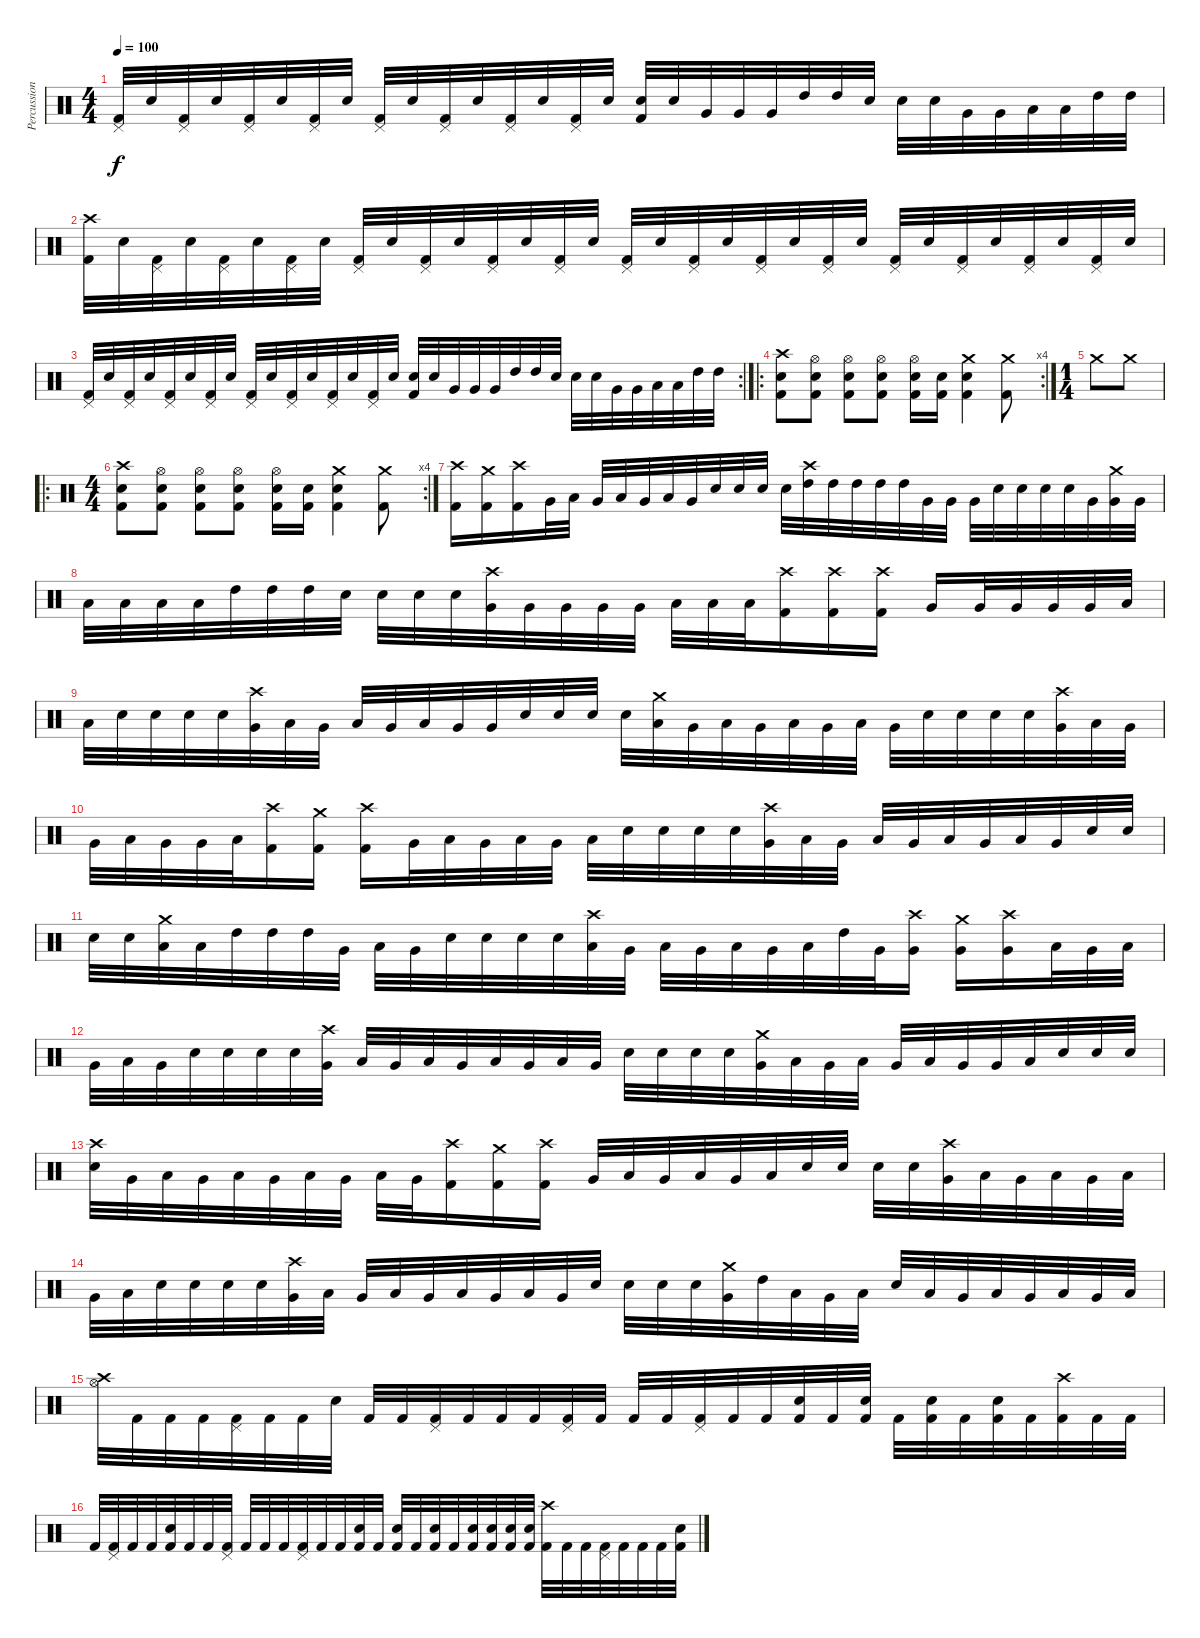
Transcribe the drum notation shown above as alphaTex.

\track ("Percussion" "Percussion") {instrument percussion}
\staff {score}
\articulation defaults
\ts (4 4)
\tempo 100
\clef neutral
\ks c
("Pedal Hi-Hat (hit)" "Kick (hit) 2").32{dy f} "Electric Snare (hit)".32 ("Pedal Hi-Hat (hit)" "Kick (hit) 2").32 "Electric Snare (hit)".32 ("Pedal Hi-Hat (hit)" "Kick (hit) 2").32 "Electric Snare (hit)".32 ("Pedal Hi-Hat (hit)" "Kick (hit) 2").32 "Electric Snare (hit)".32 ("Pedal Hi-Hat (hit)" "Kick (hit) 2").32 "Electric Snare (hit)".32 ("Pedal Hi-Hat (hit)" "Kick (hit) 2").32 "Electric Snare (hit)".32 ("Pedal Hi-Hat (hit)" "Kick (hit) 2").32 "Electric Snare (hit)".32 ("Pedal Hi-Hat (hit)" "Kick (hit) 2").32 "Electric Snare (hit)".32 ("Electric Snare (hit)" "Kick (hit) 2").32 "Electric Snare (hit)".32 "Very Low Tom (hit)".32 "Very Low Tom (hit)".32 "Very Low Tom (hit)".32 "High Tom (hit)".32 "High Tom (hit)".32 "Electric Snare (hit)".32 "Electric Snare (hit)".32 "Electric Snare (hit)".32 "Very Low Tom (hit)".32 "Very Low Tom (hit)".32 "Low Tom (hit)".32 "Low Tom (hit)".32 "High Tom (hit)".32 "High Tom (hit)".32 |
("Crash high (hit)" "Kick (hit) 2").32 "Electric Snare (hit)".32 ("Pedal Hi-Hat (hit)" "Kick (hit) 2").32 "Electric Snare (hit)".32 ("Pedal Hi-Hat (hit)" "Kick (hit) 2").32 "Electric Snare (hit)".32 ("Pedal Hi-Hat (hit)" "Kick (hit) 2").32 "Electric Snare (hit)".32 ("Pedal Hi-Hat (hit)" "Kick (hit) 2").32 "Electric Snare (hit)".32 ("Pedal Hi-Hat (hit)" "Kick (hit) 2").32 "Electric Snare (hit)".32 ("Pedal Hi-Hat (hit)" "Kick (hit) 2").32 "Electric Snare (hit)".32 ("Pedal Hi-Hat (hit)" "Kick (hit) 2").32 "Electric Snare (hit)".32 ("Pedal Hi-Hat (hit)" "Kick (hit) 2").32 "Electric Snare (hit)".32 ("Pedal Hi-Hat (hit)" "Kick (hit) 2").32 "Electric Snare (hit)".32 ("Pedal Hi-Hat (hit)" "Kick (hit) 2").32 "Electric Snare (hit)".32 ("Pedal Hi-Hat (hit)" "Kick (hit) 2").32 "Electric Snare (hit)".32 ("Pedal Hi-Hat (hit)" "Kick (hit) 2").32 "Electric Snare (hit)".32 ("Pedal Hi-Hat (hit)" "Kick (hit) 2").32 "Electric Snare (hit)".32 ("Pedal Hi-Hat (hit)" "Kick (hit) 2").32 "Electric Snare (hit)".32 ("Pedal Hi-Hat (hit)" "Kick (hit) 2").32 "Electric Snare (hit)".32 |
\rc 2
("Pedal Hi-Hat (hit)" "Kick (hit) 2").32 "Electric Snare (hit)".32 ("Pedal Hi-Hat (hit)" "Kick (hit) 2").32 "Electric Snare (hit)".32 ("Pedal Hi-Hat (hit)" "Kick (hit) 2").32 "Electric Snare (hit)".32 ("Pedal Hi-Hat (hit)" "Kick (hit) 2").32 "Electric Snare (hit)".32 ("Pedal Hi-Hat (hit)" "Kick (hit) 2").32 "Electric Snare (hit)".32 ("Pedal Hi-Hat (hit)" "Kick (hit) 2").32 "Electric Snare (hit)".32 ("Pedal Hi-Hat (hit)" "Kick (hit) 2").32 "Electric Snare (hit)".32 ("Pedal Hi-Hat (hit)" "Kick (hit) 2").32 "Electric Snare (hit)".32 ("Electric Snare (hit)" "Kick (hit) 2").32 "Electric Snare (hit)".32 "Very Low Tom (hit)".32 "Very Low Tom (hit)".32 "Very Low Tom (hit)".32 "High Tom (hit)".32 "High Tom (hit)".32 "Electric Snare (hit)".32 "Electric Snare (hit)".32 "Electric Snare (hit)".32 "Very Low Tom (hit)".32 "Very Low Tom (hit)".32 "Low Tom (hit)".32 "Low Tom (hit)".32 "High Tom (hit)".32 "High Tom (hit)".32 |
\ro
\rc 4
("Crash high (hit)" "Electric Snare (hit)" "Kick (hit) 2").8 ("Hi-Hat (open)" "Electric Snare (hit)" "Kick (hit) 2").8 ("Hi-Hat (open)" "Electric Snare (hit)" "Kick (hit) 2").8 ("Hi-Hat (open)" "Electric Snare (hit)" "Kick (hit) 2").8 ("Hi-Hat (open)" "Electric Snare (hit)" "Kick (hit) 2").16 ("Electric Snare (hit)" "Kick (hit) 2").16 ("Crash medium (hit)" "Electric Snare (hit)" "Kick (hit) 2").4 ("Crash medium (hit)" "Kick (hit) 2").8 |
\ts (1 4)
"Crash medium (hit)".8 "Crash medium (hit)".8 |
\ro
\rc 4
\ts (4 4)
("Crash high (hit)" "Electric Snare (hit)" "Kick (hit) 2").8 ("Hi-Hat (open)" "Electric Snare (hit)" "Kick (hit) 2").8 ("Hi-Hat (open)" "Electric Snare (hit)" "Kick (hit) 2").8 ("Hi-Hat (open)" "Electric Snare (hit)" "Kick (hit) 2").8 ("Hi-Hat (open)" "Electric Snare (hit)" "Kick (hit) 2").16 ("Electric Snare (hit)" "Kick (hit) 2").16 ("Crash medium (hit)" "Electric Snare (hit)" "Kick (hit) 2").4 ("Crash medium (hit)" "Kick (hit) 2").8 |
("Crash high (hit)" "Kick (hit) 2").16 ("Crash medium (hit)" "Kick (hit) 2").16 ("Crash high (hit)" "Kick (hit) 2").16 "Very Low Tom (hit)".32 "Low Tom (hit)".32 "Very Low Tom (hit)".32 "Low Tom (hit)".32 "Very Low Tom (hit)".32 "Low Tom (hit)".32 "Very Low Tom (hit)".32 "Electric Snare (hit)".32 "Electric Snare (hit)".32 "Electric Snare (hit)".32 "Electric Snare (hit)".32 ("Crash high (hit)" "High Tom (hit)").32 "High Tom (hit)".32 "High Tom (hit)".32 "High Tom (hit)".32 "High Tom (hit)".32 "Very Low Tom (hit)".32 "Very Low Tom (hit)".32 "Very Low Tom (hit)".32 "Electric Snare (hit)".32 "Electric Snare (hit)".32 "Electric Snare (hit)".32 "Electric Snare (hit)".32 "Very Low Tom (hit)".32 ("Crash medium (hit)" "Very Low Tom (hit)").32 "Very Low Tom (hit)".32 |
"Low Tom (hit)".32 "Low Tom (hit)".32 "Low Tom (hit)".32 "Low Tom (hit)".32 "High Tom (hit)".32 "High Tom (hit)".32 "High Tom (hit)".32 "Electric Snare (hit)".32 "Electric Snare (hit)".32 "Electric Snare (hit)".32 "Electric Snare (hit)".32 ("Crash high (hit)" "Very Low Tom (hit)").32 "Very Low Tom (hit)".32 "Very Low Tom (hit)".32 "Very Low Tom (hit)".32 "Very Low Tom (hit)".32 "Low Tom (hit)".32 "Low Tom (hit)".32 "Low Tom (hit)".32 ("Crash high (hit)" "Kick (hit) 2").16 ("Crash high (hit)" "Kick (hit) 2").16 ("Crash high (hit)" "Kick (hit) 2").16 "Very Low Tom (hit)".16 "Very Low Tom (hit)".32 "Very Low Tom (hit)".32 "Very Low Tom (hit)".32 "Very Low Tom (hit)".32 "Low Tom (hit)".32 |
"Low Tom (hit)".32 "Electric Snare (hit)".32 "Electric Snare (hit)".32 "Electric Snare (hit)".32 "Electric Snare (hit)".32 ("Crash high (hit)" "Very Low Tom (hit)").32 "Low Tom (hit)".32 "Very Low Tom (hit)".32 "Low Tom (hit)".32 "Very Low Tom (hit)".32 "Low Tom (hit)".32 "Very Low Tom (hit)".32 "Very Low Tom (hit)".32 "Electric Snare (hit)".32 "Electric Snare (hit)".32 "Electric Snare (hit)".32 "Electric Snare (hit)".32 ("Crash medium (hit)" "Low Tom (hit)").32 "Very Low Tom (hit)".32 "Low Tom (hit)".32 "Very Low Tom (hit)".32 "Low Tom (hit)".32 "Very Low Tom (hit)".32 "Low Tom (hit)".32 "Very Low Tom (hit)".32 "Electric Snare (hit)".32 "Electric Snare (hit)".32 "Electric Snare (hit)".32 "Electric Snare (hit)".32 ("Crash high (hit)" "Very Low Tom (hit)").32 "Low Tom (hit)".32 "Very Low Tom (hit)".32 |
"Very Low Tom (hit)".32 "Low Tom (hit)".32 "Very Low Tom (hit)".32 "Very Low Tom (hit)".32 "Low Tom (hit)".32 ("Crash high (hit)" "Kick (hit) 2").16 ("Crash medium (hit)" "Kick (hit) 2").16 ("Crash high (hit)" "Kick (hit) 2").16 "Very Low Tom (hit)".32 "Low Tom (hit)".32 "Very Low Tom (hit)".32 "Low Tom (hit)".32 "Very Low Tom (hit)".32 "Low Tom (hit)".32 "Electric Snare (hit)".32 "Electric Snare (hit)".32 "Electric Snare (hit)".32 "Electric Snare (hit)".32 ("Crash high (hit)" "Very Low Tom (hit)").32 "Low Tom (hit)".32 "Very Low Tom (hit)".32 "Low Tom (hit)".32 "Very Low Tom (hit)".32 "Low Tom (hit)".32 "Very Low Tom (hit)".32 "Low Tom (hit)".32 "Very Low Tom (hit)".32 "Electric Snare (hit)".32 "Electric Snare (hit)".32 |
"Electric Snare (hit)".32 "Electric Snare (hit)".32 ("Crash medium (hit)" "Low Tom (hit)").32 "Low Tom (hit)".32 "High Tom (hit)".32 "High Tom (hit)".32 "High Tom (hit)".32 "Very Low Tom (hit)".32 "Low Tom (hit)".32 "Very Low Tom (hit)".32 "Electric Snare (hit)".32 "Electric Snare (hit)".32 "Electric Snare (hit)".32 "Electric Snare (hit)".32 ("Crash high (hit)" "Low Tom (hit)").32 "Very Low Tom (hit)".32 "Low Tom (hit)".32 "Very Low Tom (hit)".32 "Low Tom (hit)".32 "Very Low Tom (hit)".32 "Low Tom (hit)".32 "High Tom (hit)".32 "Very Low Tom (hit)".32 ("Crash high (hit)" "Very Low Tom (hit)").16 ("Crash medium (hit)" "Very Low Tom (hit)").16 ("Crash high (hit)" "Very Low Tom (hit)").16 "Low Tom (hit)".32 "Very Low Tom (hit)".32 "Low Tom (hit)".32 |
"Very Low Tom (hit)".32 "Low Tom (hit)".32 "Very Low Tom (hit)".32 "Electric Snare (hit)".32 "Electric Snare (hit)".32 "Electric Snare (hit)".32 "Electric Snare (hit)".32 ("Crash high (hit)" "Very Low Tom (hit)").32 "Low Tom (hit)".32 "Very Low Tom (hit)".32 "Low Tom (hit)".32 "Very Low Tom (hit)".32 "Low Tom (hit)".32 "Very Low Tom (hit)".32 "Low Tom (hit)".32 "Very Low Tom (hit)".32 "Electric Snare (hit)".32 "Electric Snare (hit)".32 "Electric Snare (hit)".32 "Electric Snare (hit)".32 ("Crash medium (hit)" "Very Low Tom (hit)").32 "Low Tom (hit)".32 "Very Low Tom (hit)".32 "Low Tom (hit)".32 "Very Low Tom (hit)".32 "Low Tom (hit)".32 "Very Low Tom (hit)".32 "Very Low Tom (hit)".32 "Low Tom (hit)".32 "Electric Snare (hit)".32 "Electric Snare (hit)".32 "Electric Snare (hit)".32 |
("Crash high (hit)" "Electric Snare (hit)").32 "Very Low Tom (hit)".32 "Low Tom (hit)".32 "Very Low Tom (hit)".32 "Low Tom (hit)".32 "Very Low Tom (hit)".32 "Low Tom (hit)".32 "Very Low Tom (hit)".32 "Low Tom (hit)".32 "Very Low Tom (hit)".32 ("Crash high (hit)" "Kick (hit) 2").16 ("Crash medium (hit)" "Kick (hit) 2").16 ("Crash high (hit)" "Kick (hit) 2").16 "Very Low Tom (hit)".32 "Low Tom (hit)".32 "Very Low Tom (hit)".32 "Low Tom (hit)".32 "Very Low Tom (hit)".32 "Low Tom (hit)".32 "Electric Snare (hit)".32 "Electric Snare (hit)".32 "Electric Snare (hit)".32 "Electric Snare (hit)".32 ("Crash high (hit)" "Very Low Tom (hit)").32 "Low Tom (hit)".32 "Very Low Tom (hit)".32 "Low Tom (hit)".32 "Very Low Tom (hit)".32 "Low Tom (hit)".32 |
"Very Low Tom (hit)".32 "Low Tom (hit)".32 "Electric Snare (hit)".32 "Electric Snare (hit)".32 "Electric Snare (hit)".32 "Electric Snare (hit)".32 ("Crash high (hit)" "Very Low Tom (hit)").32 "Low Tom (hit)".32 "Very Low Tom (hit)".32 "Low Tom (hit)".32 "Very Low Tom (hit)".32 "Low Tom (hit)".32 "Very Low Tom (hit)".32 "Low Tom (hit)".32 "Very Low Tom (hit)".32 "Electric Snare (hit)".32 "Electric Snare (hit)".32 "Electric Snare (hit)".32 "Electric Snare (hit)".32 ("Crash medium (hit)" "Very Low Tom (hit)").32 "High Tom (hit)".32 "Low Tom (hit)".32 "Very Low Tom (hit)".32 "Low Tom (hit)".32 "Metronome (bell)".32 "Low Tom (hit)".32 "Very Low Tom (hit)".32 "Low Tom (hit)".32 "Very Low Tom (hit)".32 "Low Tom (hit)".32 "Very Low Tom (hit)".32 "Low Tom (hit)".32 |
("Crash high (hit)" "Hi-Hat (open)").32 "Kick (hit) 2".32 "Kick (hit) 2".32 "Kick (hit) 2".32 ("Pedal Hi-Hat (hit)" "Kick (hit) 2").32 "Kick (hit) 2".32 "Kick (hit) 2".32 "Electric Snare (hit)".32 "Kick (hit) 2".32 "Kick (hit) 2".32 ("Pedal Hi-Hat (hit)" "Kick (hit) 2").32 "Kick (hit) 2".32 "Kick (hit) 2".32 "Kick (hit) 2".32 ("Pedal Hi-Hat (hit)" "Kick (hit) 2").32 "Kick (hit) 2".32 "Kick (hit) 2".32 "Kick (hit) 2".32 ("Pedal Hi-Hat (hit)" "Kick (hit) 2").32 "Kick (hit) 2".32 "Kick (hit) 2".32 ("Electric Snare (hit)" "Kick (hit) 2").32 "Kick (hit) 2".32 ("Electric Snare (hit)" "Kick (hit) 2").32 "Kick (hit) 2".32 ("Electric Snare (hit)" "Kick (hit) 2").32 "Kick (hit) 2".32 ("Electric Snare (hit)" "Kick (hit) 2").32 "Kick (hit) 2".32 ("Crash high (hit)" "Kick (hit) 2").32 "Kick (hit) 2".32 "Kick (hit) 2".32 |
"Kick (hit) 2".32 ("Pedal Hi-Hat (hit)" "Kick (hit) 2").32 "Kick (hit) 2".32 "Kick (hit) 2".32 ("Electric Snare (hit)" "Kick (hit) 2").32 "Kick (hit) 2".32 "Kick (hit) 2".32 ("Pedal Hi-Hat (hit)" "Kick (hit) 2").32 "Kick (hit) 2".32 "Kick (hit) 2".32 "Kick (hit) 2".32 ("Pedal Hi-Hat (hit)" "Kick (hit) 2").32 "Kick (hit) 2".32 "Kick (hit) 2".32 ("Electric Snare (hit)" "Kick (hit) 2").32 "Kick (hit) 2".32 ("Electric Snare (hit)" "Kick (hit) 2").32 "Kick (hit) 2".32 ("Electric Snare (hit)" "Kick (hit) 2").32 "Kick (hit) 2".32 ("Electric Snare (hit)" "Kick (hit) 2").32 ("Electric Snare (hit)" "Kick (hit) 2").32 ("Electric Snare (hit)" "Kick (hit) 2").32 ("Electric Snare (hit)" "Kick (hit) 2").32 ("Crash high (hit)" "Kick (hit) 2").32 "Kick (hit) 2".32 "Kick (hit) 2".32 ("Pedal Hi-Hat (hit)" "Kick (hit) 2").32 "Kick (hit) 2".32 "Kick (hit) 2".32 "Kick (hit) 2".32 ("Electric Snare (hit)" "Kick (hit) 2").32
